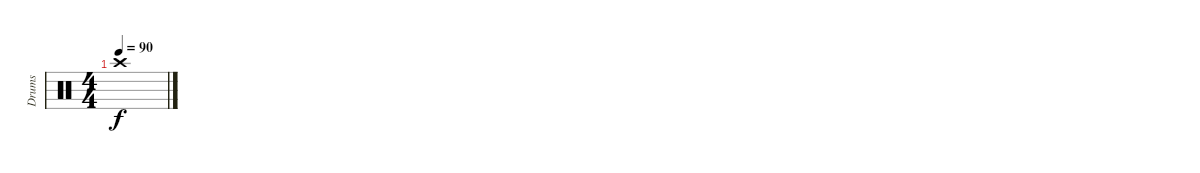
\track ("Drums" "Drums") {instrument percussion}
\staff {score}
\articulation defaults
\ts (4 4)
\tempo 90
\clef neutral
\ks c "Crash high (hit)".1{dy f}
